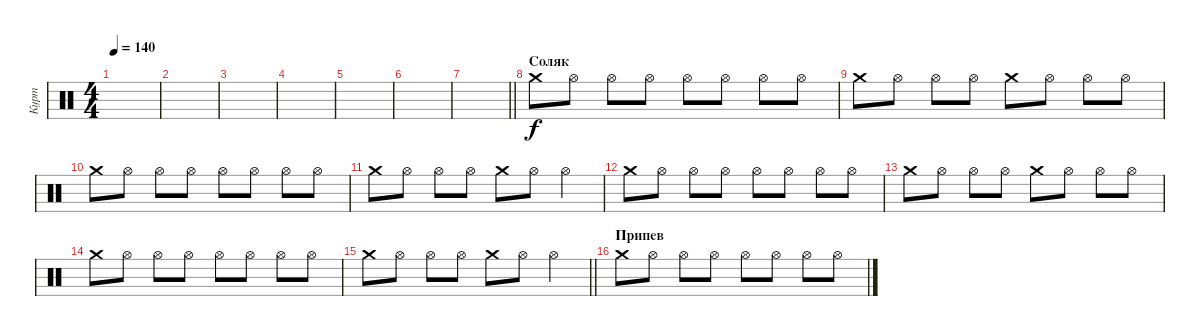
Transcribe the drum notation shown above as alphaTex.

\track ("Курт" "Курт") {instrument percussion}
\staff {score}
\articulation defaults
\ts (4 4)
\tempo 140
\clef neutral
\ks c
|
|
|
|
|
|
\barLineRight lightlight
|
\section ("" "Соляк")
"Crash medium (hit)".8 "Hi-Hat (open)".8 "Hi-Hat (open)".8 "Hi-Hat (open)".8 "Hi-Hat (open)".8 "Hi-Hat (open)".8 "Hi-Hat (open)".8 "Hi-Hat (open)".8 |
"Crash medium (hit)".8 "Hi-Hat (open)".8 "Hi-Hat (open)".8 "Hi-Hat (open)".8 "Crash medium (hit)".8 "Hi-Hat (open)".8 "Hi-Hat (open)".8 "Hi-Hat (open)".8 |
"Crash medium (hit)".8 "Hi-Hat (open)".8 "Hi-Hat (open)".8 "Hi-Hat (open)".8 "Hi-Hat (open)".8 "Hi-Hat (open)".8 "Hi-Hat (open)".8 "Hi-Hat (open)".8 |
"Crash medium (hit)".8 "Hi-Hat (open)".8 "Hi-Hat (open)".8 "Hi-Hat (open)".8 "Crash medium (hit)".8 "Hi-Hat (open)".8 "Hi-Hat (open)".4 |
"Crash medium (hit)".8 "Hi-Hat (open)".8 "Hi-Hat (open)".8 "Hi-Hat (open)".8 "Hi-Hat (open)".8 "Hi-Hat (open)".8 "Hi-Hat (open)".8 "Hi-Hat (open)".8 |
"Crash medium (hit)".8 "Hi-Hat (open)".8 "Hi-Hat (open)".8 "Hi-Hat (open)".8 "Crash medium (hit)".8 "Hi-Hat (open)".8 "Hi-Hat (open)".8 "Hi-Hat (open)".8 |
"Crash medium (hit)".8 "Hi-Hat (open)".8 "Hi-Hat (open)".8 "Hi-Hat (open)".8 "Hi-Hat (open)".8 "Hi-Hat (open)".8 "Hi-Hat (open)".8 "Hi-Hat (open)".8 |
\barLineRight lightlight "Crash medium (hit)".8 "Hi-Hat (open)".8 "Hi-Hat (open)".8 "Hi-Hat (open)".8 "Crash medium (hit)".8 "Hi-Hat (open)".8 "Hi-Hat (open)".4
|
\section ("" "Припев")
"Crash medium (hit)".8 "Hi-Hat (open)".8 "Hi-Hat (open)".8 "Hi-Hat (open)".8 "Hi-Hat (open)".8 "Hi-Hat (open)".8 "Hi-Hat (open)".8 "Hi-Hat (open)".8
